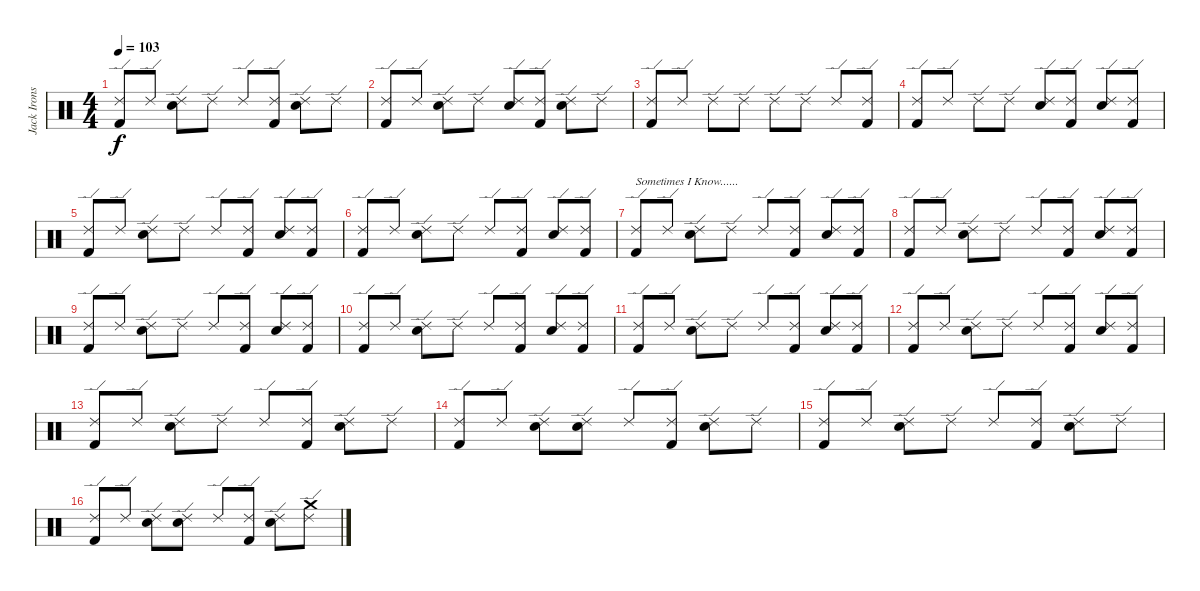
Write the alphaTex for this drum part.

\track ("Jack Irons" "Jack Irons") {instrument percussion}
\staff {score}
\articulation defaults
\ts (4 4)
\tempo 103
\clef neutral
\ks c
("Ride (edge) 2" "Kick (hit) 2").8{dy f} "Ride (edge) 2".8 ("Ride (edge) 2" "Snare (hit) 2").8 "Ride (edge) 2".8 "Ride (edge) 2".8 ("Ride (edge) 2" "Kick (hit) 2").8 ("Ride (edge) 2" "Snare (hit) 2").8 "Ride (edge) 2".8 |
("Ride (edge) 2" "Kick (hit) 2").8 "Ride (edge) 2".8 ("Ride (edge) 2" "Snare (hit) 2").8 "Ride (edge) 2".8 ("Ride (edge) 2" "Snare (hit) 2").8 ("Ride (edge) 2" "Kick (hit) 2").8 ("Ride (edge) 2" "Snare (hit) 2").8 "Ride (edge) 2".8 |
("Ride (edge) 2" "Kick (hit) 2").8 "Ride (edge) 2".8 "Ride (edge) 2".8 "Ride (edge) 2".8 "Ride (edge) 2".8 "Ride (edge) 2".8 "Ride (edge) 2".8 ("Ride (edge) 2" "Kick (hit) 2").8 |
("Ride (edge) 2" "Kick (hit) 2").8 "Ride (edge) 2".8 "Ride (edge) 2".8 "Ride (edge) 2".8 ("Ride (edge) 2" "Snare (hit) 2").8 ("Ride (edge) 2" "Kick (hit) 2").8 ("Ride (edge) 2" "Snare (hit) 2").8 ("Ride (edge) 2" "Kick (hit) 2").8 |
("Ride (edge) 2" "Kick (hit) 2").8 "Ride (edge) 2".8 ("Ride (edge) 2" "Snare (hit) 2").8 "Ride (edge) 2".8 "Ride (edge) 2".8 ("Ride (edge) 2" "Kick (hit) 2").8 ("Ride (edge) 2" "Snare (hit) 2").8 ("Ride (edge) 2" "Kick (hit) 2").8 |
("Ride (edge) 2" "Kick (hit) 2").8 "Ride (edge) 2".8 ("Ride (edge) 2" "Snare (hit) 2").8 "Ride (edge) 2".8 "Ride (edge) 2".8 ("Ride (edge) 2" "Kick (hit) 2").8 ("Ride (edge) 2" "Snare (hit) 2").8 ("Ride (edge) 2" "Kick (hit) 2").8 |
("Ride (edge) 2" "Kick (hit) 2").8{txt "Sometimes I Know......"} "Ride (edge) 2".8 ("Ride (edge) 2" "Snare (hit) 2").8 "Ride (edge) 2".8 "Ride (edge) 2".8 ("Ride (edge) 2" "Kick (hit) 2").8 ("Ride (edge) 2" "Snare (hit) 2").8 ("Ride (edge) 2" "Kick (hit) 2").8 |
("Ride (edge) 2" "Kick (hit) 2").8 "Ride (edge) 2".8 ("Ride (edge) 2" "Snare (hit) 2").8 "Ride (edge) 2".8 "Ride (edge) 2".8 ("Ride (edge) 2" "Kick (hit) 2").8 ("Ride (edge) 2" "Snare (hit) 2").8 ("Ride (edge) 2" "Kick (hit) 2").8 |
("Ride (edge) 2" "Kick (hit) 2").8 "Ride (edge) 2".8 ("Ride (edge) 2" "Snare (hit) 2").8 "Ride (edge) 2".8 "Ride (edge) 2".8 ("Ride (edge) 2" "Kick (hit) 2").8 ("Ride (edge) 2" "Snare (hit) 2").8 ("Ride (edge) 2" "Kick (hit) 2").8 |
("Ride (edge) 2" "Kick (hit) 2").8 "Ride (edge) 2".8 ("Ride (edge) 2" "Snare (hit) 2").8 "Ride (edge) 2".8 "Ride (edge) 2".8 ("Ride (edge) 2" "Kick (hit) 2").8 ("Ride (edge) 2" "Snare (hit) 2").8 ("Ride (edge) 2" "Kick (hit) 2").8 |
("Ride (edge) 2" "Kick (hit) 2").8 "Ride (edge) 2".8 ("Ride (edge) 2" "Snare (hit) 2").8 "Ride (edge) 2".8 "Ride (edge) 2".8 ("Ride (edge) 2" "Kick (hit) 2").8 ("Ride (edge) 2" "Snare (hit) 2").8 ("Ride (edge) 2" "Kick (hit) 2").8 |
("Ride (edge) 2" "Kick (hit) 2").8 "Ride (edge) 2".8 ("Ride (edge) 2" "Snare (hit) 2").8 "Ride (edge) 2".8 "Ride (edge) 2".8 ("Ride (edge) 2" "Kick (hit) 2").8 ("Ride (edge) 2" "Snare (hit) 2").8 ("Ride (edge) 2" "Kick (hit) 2").8 |
("Ride (edge) 2" "Kick (hit) 2").8 "Ride (edge) 2".8 ("Ride (edge) 2" "Snare (hit) 2").8 "Ride (edge) 2".8 "Ride (edge) 2".8 ("Ride (edge) 2" "Kick (hit) 2").8 ("Ride (edge) 2" "Snare (hit) 2").8 "Ride (edge) 2".8 |
("Ride (edge) 2" "Kick (hit) 2").8 "Ride (edge) 2".8 ("Ride (edge) 2" "Snare (hit) 2").8 ("Ride (edge) 2" "Snare (hit) 2").8 "Ride (edge) 2".8 ("Ride (edge) 2" "Kick (hit) 2").8 ("Ride (edge) 2" "Snare (hit) 2").8 "Ride (edge) 2".8 |
("Ride (edge) 2" "Kick (hit) 2").8 "Ride (edge) 2".8 ("Ride (edge) 2" "Snare (hit) 2").8 "Ride (edge) 2".8 "Ride (edge) 2".8 ("Ride (edge) 2" "Kick (hit) 2").8 ("Ride (edge) 2" "Snare (hit) 2").8 "Ride (edge) 2".8 |
("Ride (edge) 2" "Kick (hit) 2").8 "Ride (edge) 2".8 ("Ride (edge) 2" "Snare (hit) 2").8 ("Ride (edge) 2" "Snare (hit) 2").8 "Ride (edge) 2".8 ("Ride (edge) 2" "Kick (hit) 2").8 ("Ride (edge) 2" "Snare (hit) 2").8 ("Crash medium (hit)" "Ride (edge) 2").8
